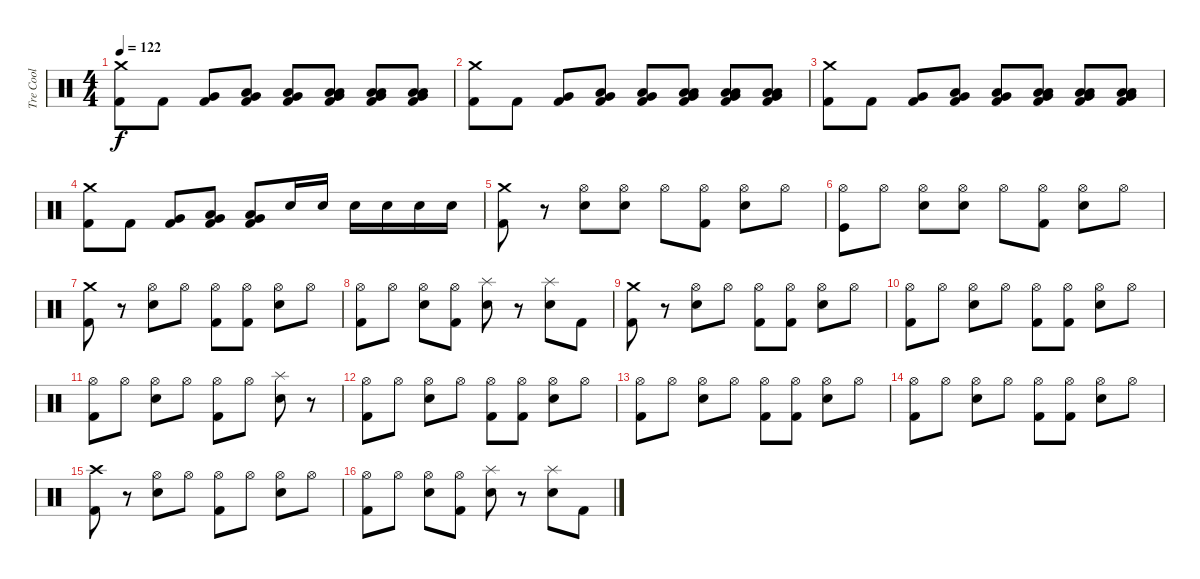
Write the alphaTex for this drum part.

\track ("Tre Cool" "Tre Cool") {instrument percussion}
\staff {score}
\articulation defaults
\ts (4 4)
\tempo 122
\clef neutral
\ks c
("Crash medium (hit)" "Kick (hit) 2").8{dy f} "Kick (hit) 2".8 ("Very Low Tom (hit)" "Kick (hit) 2").8 ("Low Tom (hit)" "Very Low Tom (hit)" "Kick (hit) 2").8 ("Low Tom (hit)" "Very Low Tom (hit)" "Kick (hit) 2").8 ("Low Floor Tom (hit)" "Very Low Tom (hit)" "Low Tom (hit)" "Kick (hit) 2").8 ("Low Floor Tom (hit)" "Very Low Tom (hit)" "Low Tom (hit)" "Kick (hit) 2").8 ("Low Floor Tom (hit)" "Very Low Tom (hit)" "Low Tom (hit)" "Kick (hit) 2").8 |
("Crash medium (hit)" "Kick (hit) 2").8 "Kick (hit) 2".8 ("Very Low Tom (hit)" "Kick (hit) 2").8 ("Low Tom (hit)" "Very Low Tom (hit)" "Kick (hit) 2").8 ("Low Tom (hit)" "Very Low Tom (hit)" "Kick (hit) 2").8 ("Low Floor Tom (hit)" "Very Low Tom (hit)" "Low Tom (hit)" "Kick (hit) 2").8 ("Low Floor Tom (hit)" "Very Low Tom (hit)" "Low Tom (hit)" "Kick (hit) 2").8 ("Low Floor Tom (hit)" "Very Low Tom (hit)" "Low Tom (hit)" "Kick (hit) 2").8 |
("Crash medium (hit)" "Kick (hit) 2").8 "Kick (hit) 2".8 ("Very Low Tom (hit)" "Kick (hit) 2").8 ("Low Tom (hit)" "Very Low Tom (hit)" "Kick (hit) 2").8 ("Low Tom (hit)" "Very Low Tom (hit)" "Kick (hit) 2").8 ("Low Floor Tom (hit)" "Very Low Tom (hit)" "Low Tom (hit)" "Kick (hit) 2").8 ("Low Floor Tom (hit)" "Very Low Tom (hit)" "Low Tom (hit)" "Kick (hit) 2").8 ("Low Floor Tom (hit)" "Very Low Tom (hit)" "Low Tom (hit)" "Kick (hit) 2").8 |
("Crash medium (hit)" "Kick (hit) 2").8 "Kick (hit) 2".8 ("Very Low Tom (hit)" "Kick (hit) 2").8 ("Low Tom (hit)" "Very Low Tom (hit)" "Kick (hit) 2").8 ("Low Tom (hit)" "Very Low Tom (hit)" "Kick (hit) 2").8 "Electric Snare (hit)".16 "Electric Snare (hit)".16 "Electric Snare (hit)".16 "Electric Snare (hit)".16 "Electric Snare (hit)".16 "Electric Snare (hit)".16 |
("Kick (hit) 2" "Crash medium (hit)").8 r.8 ("Hi-Hat (open)" "Electric Snare (hit)").8 ("Hi-Hat (open)" "Electric Snare (hit)").8 "Hi-Hat (open)".8 ("Hi-Hat (open)" "Kick (hit) 2").8 ("Hi-Hat (open)" "Electric Snare (hit)").8 "Hi-Hat (open)".8 |
("Hi-Hat (open)" "Kick (hit)").8 "Hi-Hat (open)".8 ("Hi-Hat (open)" "Electric Snare (hit)").8 ("Hi-Hat (open)" "Electric Snare (hit)").8 "Hi-Hat (open)".8 ("Hi-Hat (open)" "Kick (hit) 2").8 ("Hi-Hat (open)" "Electric Snare (hit)").8 "Hi-Hat (open)".8 |
("Crash medium (hit)" "Kick (hit) 2").8 r.8 ("Hi-Hat (open)" "Electric Snare (hit)").8 "Hi-Hat (open)".8 ("Hi-Hat (open)" "Kick (hit) 2").8 ("Hi-Hat (open)" "Kick (hit) 2").8 ("Hi-Hat (open)" "Electric Snare (hit)").8 "Hi-Hat (open)".8 |
("Hi-Hat (open)" "Kick (hit) 2").8 "Hi-Hat (open)".8 ("Hi-Hat (open)" "Electric Snare (hit)").8 ("Hi-Hat (open)" "Kick (hit) 2").8 ("Splash (hit)" "Electric Snare (hit)").8 r.8 ("Splash (hit)" "Electric Snare (hit)").8 "Kick (hit) 2".8 |
("Crash medium (hit)" "Kick (hit) 2").8 r.8 ("Electric Snare (hit)" "Hi-Hat (open)").8 "Hi-Hat (open)".8 ("Kick (hit) 2" "Hi-Hat (open)").8 ("Kick (hit) 2" "Hi-Hat (open)").8 ("Hi-Hat (open)" "Electric Snare (hit)").8 "Hi-Hat (open)".8 |
("Hi-Hat (open)" "Kick (hit) 2").8 "Hi-Hat (open)".8 ("Electric Snare (hit)" "Hi-Hat (open)").8 "Hi-Hat (open)".8 ("Kick (hit) 2" "Hi-Hat (open)").8 ("Hi-Hat (open)" "Kick (hit) 2").8 ("Electric Snare (hit)" "Hi-Hat (open)").8 "Hi-Hat (open)".8 |
("Hi-Hat (open)" "Kick (hit) 2").8 "Hi-Hat (open)".8 ("Electric Snare (hit)" "Hi-Hat (open)").8 "Hi-Hat (open)".8 ("Kick (hit) 2" "Hi-Hat (open)").8 "Hi-Hat (open)".8 ("Splash (hit)" "Electric Snare (hit)").8 r.8 |
("Hi-Hat (open)" "Kick (hit) 2").8 "Hi-Hat (open)".8 ("Electric Snare (hit)" "Hi-Hat (open)").8 "Hi-Hat (open)".8 ("Kick (hit) 2" "Hi-Hat (open)").8 ("Hi-Hat (open)" "Kick (hit) 2").8 ("Electric Snare (hit)" "Hi-Hat (open)").8 "Hi-Hat (open)".8 |
("Hi-Hat (open)" "Kick (hit) 2").8 "Hi-Hat (open)".8 ("Electric Snare (hit)" "Hi-Hat (open)").8 "Hi-Hat (open)".8 ("Kick (hit) 2" "Hi-Hat (open)").8 ("Hi-Hat (open)" "Kick (hit) 2").8 ("Hi-Hat (open)" "Electric Snare (hit)").8 "Hi-Hat (open)".8 |
("Kick (hit) 2" "Hi-Hat (open)").8 "Hi-Hat (open)".8 ("Electric Snare (hit)" "Hi-Hat (open)").8 "Hi-Hat (open)".8 ("Hi-Hat (open)" "Kick (hit) 2").8 ("Hi-Hat (open)" "Kick (hit) 2").8 ("Electric Snare (hit)" "Hi-Hat (open)").8 "Hi-Hat (open)".8 |
("Crash high (hit)" "Kick (hit) 2").8 r.8 ("Electric Snare (hit)" "Hi-Hat (open)").8 "Hi-Hat (open)".8 ("Kick (hit) 2" "Hi-Hat (open)").8 "Hi-Hat (open)".8 ("Hi-Hat (open)" "Electric Snare (hit)").8 "Hi-Hat (open)".8 |
("Kick (hit) 2" "Hi-Hat (open)").8 "Hi-Hat (open)".8 ("Electric Snare (hit)" "Hi-Hat (open)").8 ("Hi-Hat (open)" "Kick (hit) 2").8 ("Splash (hit)" "Electric Snare (hit)").8 r.8 ("Splash (hit)" "Electric Snare (hit)").8 "Kick (hit) 2".8
